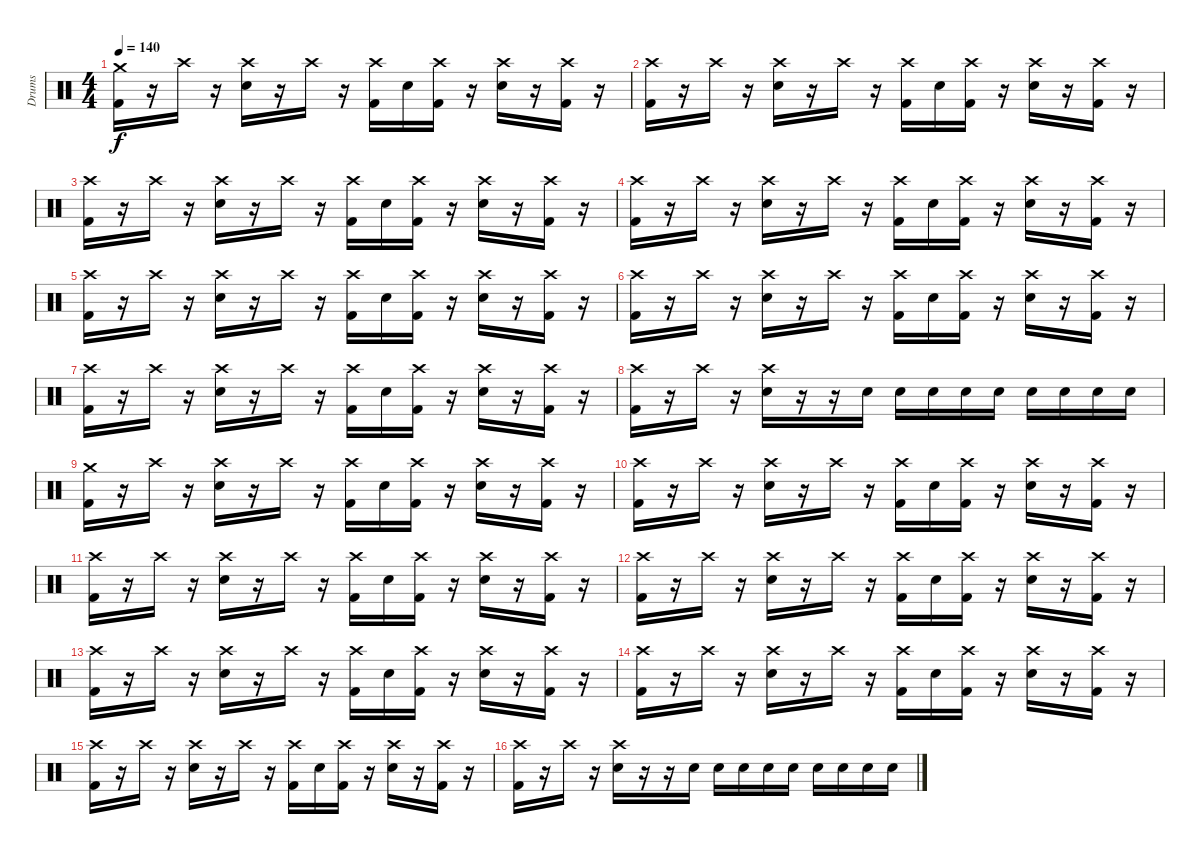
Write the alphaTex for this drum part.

\track ("Drums" "Drums") {instrument percussion}
\staff {score}
\articulation defaults
\ts (4 4)
\tempo 140
\clef neutral
\ks c
("Crash medium (hit)" "Kick (hit) 2").16{dy f} r.16 "Crash high (hit)".16 r.16 ("Crash high (hit)" "Electric Snare (hit)").16 r.16 "Crash high (hit)".16 r.16 ("Crash high (hit)" "Kick (hit) 2").16 "Electric Snare (hit)".16 ("Crash high (hit)" "Kick (hit) 2").16 r.16 ("Crash high (hit)" "Electric Snare (hit)").16 r.16 ("Crash high (hit)" "Kick (hit) 2").16 r.16 |
("Crash high (hit)" "Kick (hit) 2").16 r.16 "Crash high (hit)".16 r.16 ("Crash high (hit)" "Electric Snare (hit)").16 r.16 "Crash high (hit)".16 r.16 ("Crash high (hit)" "Kick (hit) 2").16 "Electric Snare (hit)".16 ("Crash high (hit)" "Kick (hit) 2").16 r.16 ("Crash high (hit)" "Electric Snare (hit)").16 r.16 ("Crash high (hit)" "Kick (hit) 2").16 r.16 |
("Crash high (hit)" "Kick (hit) 2").16 r.16 "Crash high (hit)".16 r.16 ("Crash high (hit)" "Electric Snare (hit)").16 r.16 "Crash high (hit)".16 r.16 ("Crash high (hit)" "Kick (hit) 2").16 "Electric Snare (hit)".16 ("Crash high (hit)" "Kick (hit) 2").16 r.16 ("Crash high (hit)" "Electric Snare (hit)").16 r.16 ("Crash high (hit)" "Kick (hit) 2").16 r.16 |
("Crash high (hit)" "Kick (hit) 2").16 r.16 "Crash high (hit)".16 r.16 ("Crash high (hit)" "Electric Snare (hit)").16 r.16 "Crash high (hit)".16 r.16 ("Crash high (hit)" "Kick (hit) 2").16 "Electric Snare (hit)".16 ("Crash high (hit)" "Kick (hit) 2").16 r.16 ("Crash high (hit)" "Electric Snare (hit)").16 r.16 ("Crash high (hit)" "Kick (hit) 2").16 r.16 |
("Crash high (hit)" "Kick (hit) 2").16 r.16 "Crash high (hit)".16 r.16 ("Crash high (hit)" "Electric Snare (hit)").16 r.16 "Crash high (hit)".16 r.16 ("Crash high (hit)" "Kick (hit) 2").16 "Electric Snare (hit)".16 ("Crash high (hit)" "Kick (hit) 2").16 r.16 ("Crash high (hit)" "Electric Snare (hit)").16 r.16 ("Crash high (hit)" "Kick (hit) 2").16 r.16 |
("Crash high (hit)" "Kick (hit) 2").16 r.16 "Crash high (hit)".16 r.16 ("Crash high (hit)" "Electric Snare (hit)").16 r.16 "Crash high (hit)".16 r.16 ("Crash high (hit)" "Kick (hit) 2").16 "Electric Snare (hit)".16 ("Crash high (hit)" "Kick (hit) 2").16 r.16 ("Crash high (hit)" "Electric Snare (hit)").16 r.16 ("Crash high (hit)" "Kick (hit) 2").16 r.16 |
("Crash high (hit)" "Kick (hit) 2").16 r.16 "Crash high (hit)".16 r.16 ("Crash high (hit)" "Electric Snare (hit)").16 r.16 "Crash high (hit)".16 r.16 ("Crash high (hit)" "Kick (hit) 2").16 "Electric Snare (hit)".16 ("Crash high (hit)" "Kick (hit) 2").16 r.16 ("Crash high (hit)" "Electric Snare (hit)").16 r.16 ("Crash high (hit)" "Kick (hit) 2").16 r.16 |
("Crash high (hit)" "Kick (hit) 2").16 r.16 "Crash high (hit)".16 r.16 ("Crash high (hit)" "Electric Snare (hit)").16 r.16 r.16 "Electric Snare (hit)".16 "Electric Snare (hit)".16 "Electric Snare (hit)".16 "Electric Snare (hit)".16 "Electric Snare (hit)".16 "Electric Snare (hit)".16 "Electric Snare (hit)".16 "Electric Snare (hit)".16 "Electric Snare (hit)".16 |
("Crash medium (hit)" "Kick (hit) 2").16 r.16 "Crash high (hit)".16 r.16 ("Crash high (hit)" "Electric Snare (hit)").16 r.16 "Crash high (hit)".16 r.16 ("Crash high (hit)" "Kick (hit) 2").16 "Electric Snare (hit)".16 ("Crash high (hit)" "Kick (hit) 2").16 r.16 ("Crash high (hit)" "Electric Snare (hit)").16 r.16 ("Crash high (hit)" "Kick (hit) 2").16 r.16 |
("Crash high (hit)" "Kick (hit) 2").16 r.16 "Crash high (hit)".16 r.16 ("Crash high (hit)" "Electric Snare (hit)").16 r.16 "Crash high (hit)".16 r.16 ("Crash high (hit)" "Kick (hit) 2").16 "Electric Snare (hit)".16 ("Crash high (hit)" "Kick (hit) 2").16 r.16 ("Crash high (hit)" "Electric Snare (hit)").16 r.16 ("Crash high (hit)" "Kick (hit) 2").16 r.16 |
("Crash high (hit)" "Kick (hit) 2").16 r.16 "Crash high (hit)".16 r.16 ("Crash high (hit)" "Electric Snare (hit)").16 r.16 "Crash high (hit)".16 r.16 ("Crash high (hit)" "Kick (hit) 2").16 "Electric Snare (hit)".16 ("Crash high (hit)" "Kick (hit) 2").16 r.16 ("Crash high (hit)" "Electric Snare (hit)").16 r.16 ("Crash high (hit)" "Kick (hit) 2").16 r.16 |
("Crash high (hit)" "Kick (hit) 2").16 r.16 "Crash high (hit)".16 r.16 ("Crash high (hit)" "Electric Snare (hit)").16 r.16 "Crash high (hit)".16 r.16 ("Crash high (hit)" "Kick (hit) 2").16 "Electric Snare (hit)".16 ("Crash high (hit)" "Kick (hit) 2").16 r.16 ("Crash high (hit)" "Electric Snare (hit)").16 r.16 ("Crash high (hit)" "Kick (hit) 2").16 r.16 |
("Crash high (hit)" "Kick (hit) 2").16 r.16 "Crash high (hit)".16 r.16 ("Crash high (hit)" "Electric Snare (hit)").16 r.16 "Crash high (hit)".16 r.16 ("Crash high (hit)" "Kick (hit) 2").16 "Electric Snare (hit)".16 ("Crash high (hit)" "Kick (hit) 2").16 r.16 ("Crash high (hit)" "Electric Snare (hit)").16 r.16 ("Crash high (hit)" "Kick (hit) 2").16 r.16 |
("Crash high (hit)" "Kick (hit) 2").16 r.16 "Crash high (hit)".16 r.16 ("Crash high (hit)" "Electric Snare (hit)").16 r.16 "Crash high (hit)".16 r.16 ("Crash high (hit)" "Kick (hit) 2").16 "Electric Snare (hit)".16 ("Crash high (hit)" "Kick (hit) 2").16 r.16 ("Crash high (hit)" "Electric Snare (hit)").16 r.16 ("Crash high (hit)" "Kick (hit) 2").16 r.16 |
("Crash high (hit)" "Kick (hit) 2").16 r.16 "Crash high (hit)".16 r.16 ("Crash high (hit)" "Electric Snare (hit)").16 r.16 "Crash high (hit)".16 r.16 ("Crash high (hit)" "Kick (hit) 2").16 "Electric Snare (hit)".16 ("Crash high (hit)" "Kick (hit) 2").16 r.16 ("Crash high (hit)" "Electric Snare (hit)").16 r.16 ("Crash high (hit)" "Kick (hit) 2").16 r.16 |
("Crash high (hit)" "Kick (hit) 2").16 r.16 "Crash high (hit)".16 r.16 ("Crash high (hit)" "Electric Snare (hit)").16 r.16 r.16 "Electric Snare (hit)".16 "Electric Snare (hit)".16 "Electric Snare (hit)".16 "Electric Snare (hit)".16 "Electric Snare (hit)".16 "Electric Snare (hit)".16 "Electric Snare (hit)".16 "Electric Snare (hit)".16 "Electric Snare (hit)".16
